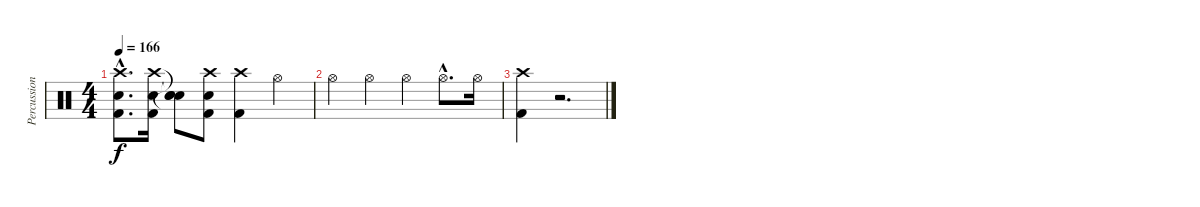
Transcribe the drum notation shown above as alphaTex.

\track ("Percussion" "Percussion") {instrument percussion}
\staff {score}
\articulation defaults
\ts (4 4)
\tempo 166
\clef neutral
\ks c
("Crash high (hit)"{hac} "Electric Snare (hit)"{hac} "Kick (hit) 2"{hac}).8{d dy f} ("Crash high (hit)" "Electric Snare (hit)" "Kick (hit) 2").16 ("Snare (hit)"{t} "Snare (hit)"{t} "Snare (hit)"{t}).8 ("Crash high (hit)" "Electric Snare (hit)" "Kick (hit) 2").8 ("Crash high (hit)" "Kick (hit) 2").4 "Hi-Hat (open)".4 |
"Hi-Hat (open)".4 "Hi-Hat (open)".4 "Hi-Hat (open)".4 "Hi-Hat (open)"{hac}.8{d} "Hi-Hat (open)".16 |
("Crash high (hit)" "Kick (hit) 2").4 r.2{d}
